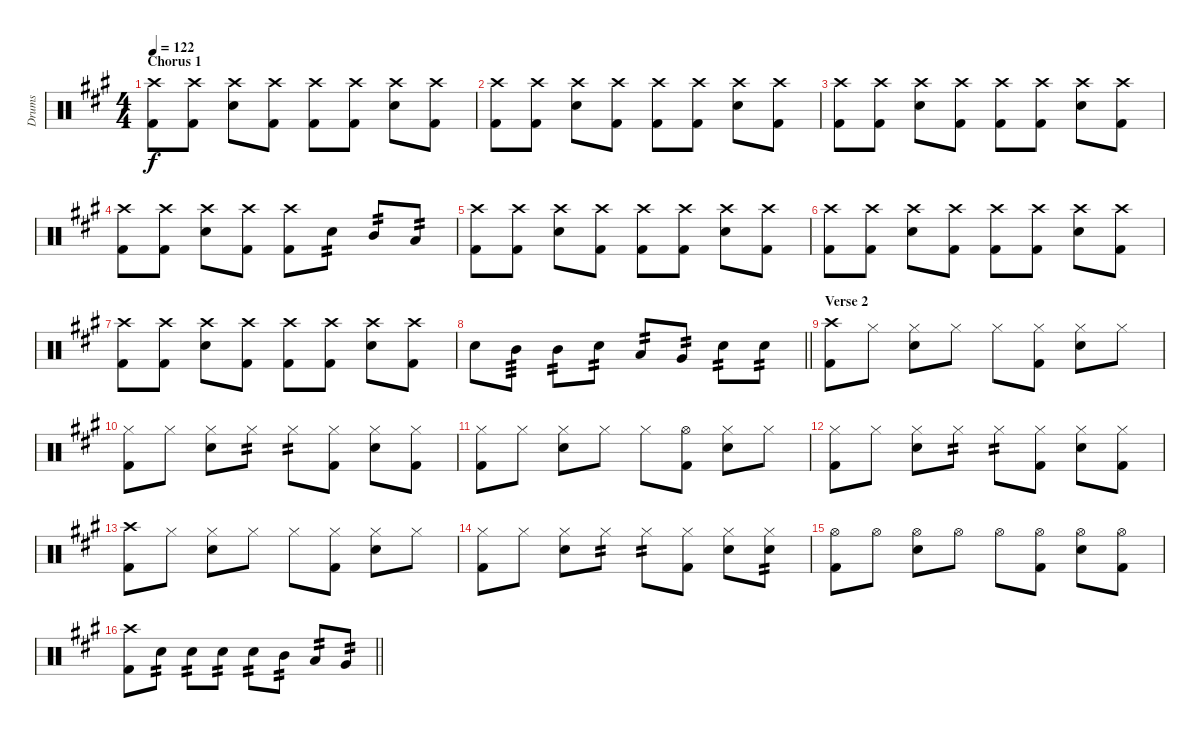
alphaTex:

\track ("Drums" "Drums") {instrument percussion}
\staff {score}
\articulation defaults
\ts (4 4)
\section ("" "Chorus 1")
\tempo 122
\clef neutral
\ks f#minor
("Crash high (hit)" "Kick (hit) 2").8{dy f} ("Crash high (hit)" "Kick (hit) 2").8 ("Crash high (hit)" "Snare (hit) 2").8 ("Crash high (hit)" "Kick (hit) 2").8 ("Crash high (hit)" "Kick (hit) 2").8 ("Crash high (hit)" "Kick (hit) 2").8 ("Crash high (hit)" "Snare (hit) 2").8 ("Crash high (hit)" "Kick (hit) 2").8 |
("Crash high (hit)" "Kick (hit) 2").8 ("Crash high (hit)" "Kick (hit) 2").8 ("Crash high (hit)" "Snare (hit) 2").8 ("Crash high (hit)" "Kick (hit) 2").8 ("Crash high (hit)" "Kick (hit) 2").8 ("Crash high (hit)" "Kick (hit) 2").8 ("Crash high (hit)" "Snare (hit) 2").8 ("Crash high (hit)" "Kick (hit) 2").8 |
("Crash high (hit)" "Kick (hit) 2").8 ("Crash high (hit)" "Kick (hit) 2").8 ("Crash high (hit)" "Snare (hit) 2").8 ("Crash high (hit)" "Kick (hit) 2").8 ("Crash high (hit)" "Kick (hit) 2").8 ("Crash high (hit)" "Kick (hit) 2").8 ("Crash high (hit)" "Snare (hit) 2").8 ("Crash high (hit)" "Kick (hit) 2").8 |
("Crash high (hit)" "Kick (hit) 2").8 ("Crash high (hit)" "Kick (hit) 2").8 ("Crash high (hit)" "Snare (hit) 2").8 ("Crash high (hit)" "Kick (hit) 2").8 ("Crash high (hit)" "Kick (hit) 2").8 "Snare (hit) 2".8{tp 2} "Mid Tom (hit)".8{tp 2} "Low Tom (hit)".8{tp 2} |
("Crash high (hit)" "Kick (hit) 2").8 ("Crash high (hit)" "Kick (hit) 2").8 ("Crash high (hit)" "Snare (hit) 2").8 ("Crash high (hit)" "Kick (hit) 2").8 ("Crash high (hit)" "Kick (hit) 2").8 ("Crash high (hit)" "Kick (hit) 2").8 ("Crash high (hit)" "Snare (hit) 2").8 ("Crash high (hit)" "Kick (hit) 2").8 |
("Crash high (hit)" "Kick (hit) 2").8 ("Crash high (hit)" "Kick (hit) 2").8 ("Crash high (hit)" "Snare (hit) 2").8 ("Crash high (hit)" "Kick (hit) 2").8 ("Crash high (hit)" "Kick (hit) 2").8 ("Crash high (hit)" "Kick (hit) 2").8 ("Crash high (hit)" "Snare (hit) 2").8 ("Crash high (hit)" "Kick (hit) 2").8 |
("Crash high (hit)" "Kick (hit) 2").8 ("Crash high (hit)" "Kick (hit) 2").8 ("Crash high (hit)" "Snare (hit) 2").8 ("Crash high (hit)" "Kick (hit) 2").8 ("Crash high (hit)" "Kick (hit) 2").8 ("Crash high (hit)" "Kick (hit) 2").8 ("Crash high (hit)" "Snare (hit) 2").8 ("Crash high (hit)" "Kick (hit) 2").8 |
\barLineRight lightlight "Snare (hit) 2".8 "Mid Tom (hit)".8{tp 3} "Mid Tom (hit)".8{tp 2} "Snare (hit) 2".8{tp 2} "Low Tom (hit)".8{tp 2} "Very Low Tom (hit)".8{tp 2} "Snare (hit) 2".8{tp 2} "Snare (hit) 2".8{tp 2}
|
\section ("" "Verse 2")
("Crash high (hit)" "Kick (hit) 2").8 "Hi-Hat (closed)".8 ("Hi-Hat (closed)" "Snare (hit) 2").8 "Hi-Hat (closed)".8 "Hi-Hat (closed)".8 ("Hi-Hat (closed)" "Kick (hit) 2").8 ("Hi-Hat (closed)" "Snare (hit) 2").8 "Hi-Hat (closed)".8 |
("Hi-Hat (closed)" "Kick (hit) 2").8 "Hi-Hat (closed)".8 ("Hi-Hat (closed)" "Snare (hit) 2").8 "Hi-Hat (closed)".8{tp 2} "Hi-Hat (closed)".8{tp 2} ("Hi-Hat (closed)" "Kick (hit) 2").8 ("Hi-Hat (closed)" "Snare (hit) 2").8 ("Hi-Hat (closed)" "Kick (hit) 2").8 |
("Hi-Hat (closed)" "Kick (hit) 2").8 "Hi-Hat (closed)".8 ("Hi-Hat (closed)" "Snare (hit) 2").8 "Hi-Hat (closed)".8 "Hi-Hat (closed)".8 ("Hi-Hat (open)" "Kick (hit) 2").8 ("Hi-Hat (closed)" "Snare (hit) 2").8 "Hi-Hat (closed)".8 |
("Hi-Hat (closed)" "Kick (hit) 2").8 "Hi-Hat (closed)".8 ("Hi-Hat (closed)" "Snare (hit) 2").8 "Hi-Hat (closed)".8{tp 2} "Hi-Hat (closed)".8{tp 2} ("Hi-Hat (closed)" "Kick (hit) 2").8 ("Hi-Hat (closed)" "Snare (hit) 2").8 ("Hi-Hat (closed)" "Kick (hit) 2").8 |
("Crash high (hit)" "Kick (hit) 2").8 "Hi-Hat (closed)".8 ("Hi-Hat (closed)" "Snare (hit) 2").8 "Hi-Hat (closed)".8 "Hi-Hat (closed)".8 ("Hi-Hat (closed)" "Kick (hit) 2").8 ("Hi-Hat (closed)" "Snare (hit) 2").8 "Hi-Hat (closed)".8 |
("Hi-Hat (closed)" "Kick (hit) 2").8 "Hi-Hat (closed)".8 ("Hi-Hat (closed)" "Snare (hit) 2").8 "Hi-Hat (closed)".8{tp 2} "Hi-Hat (closed)".8{tp 2} ("Hi-Hat (closed)" "Kick (hit) 2").8 ("Hi-Hat (closed)" "Snare (hit) 2").8 ("Hi-Hat (closed)" "Snare (hit) 2").8{tp 2} |
("Hi-Hat (open)" "Kick (hit) 2").8 "Hi-Hat (open)".8 ("Hi-Hat (open)" "Snare (hit) 2").8 "Hi-Hat (open)".8 "Hi-Hat (open)".8 ("Hi-Hat (open)" "Kick (hit) 2").8 ("Hi-Hat (open)" "Snare (hit) 2").8 ("Hi-Hat (open)" "Kick (hit) 2").8 |
\barLineRight lightlight
("Crash high (hit)" "Kick (hit) 2").8 "Snare (hit) 2".8{tp 2} "Snare (hit) 2".8{tp 2} "Snare (hit) 2".8{tp 2} "Snare (hit) 2".8{tp 2} "Mid Tom (hit)".8{tp 2} "Low Tom (hit)".8{tp 2} "Very Low Tom (hit)".8{tp 2}
